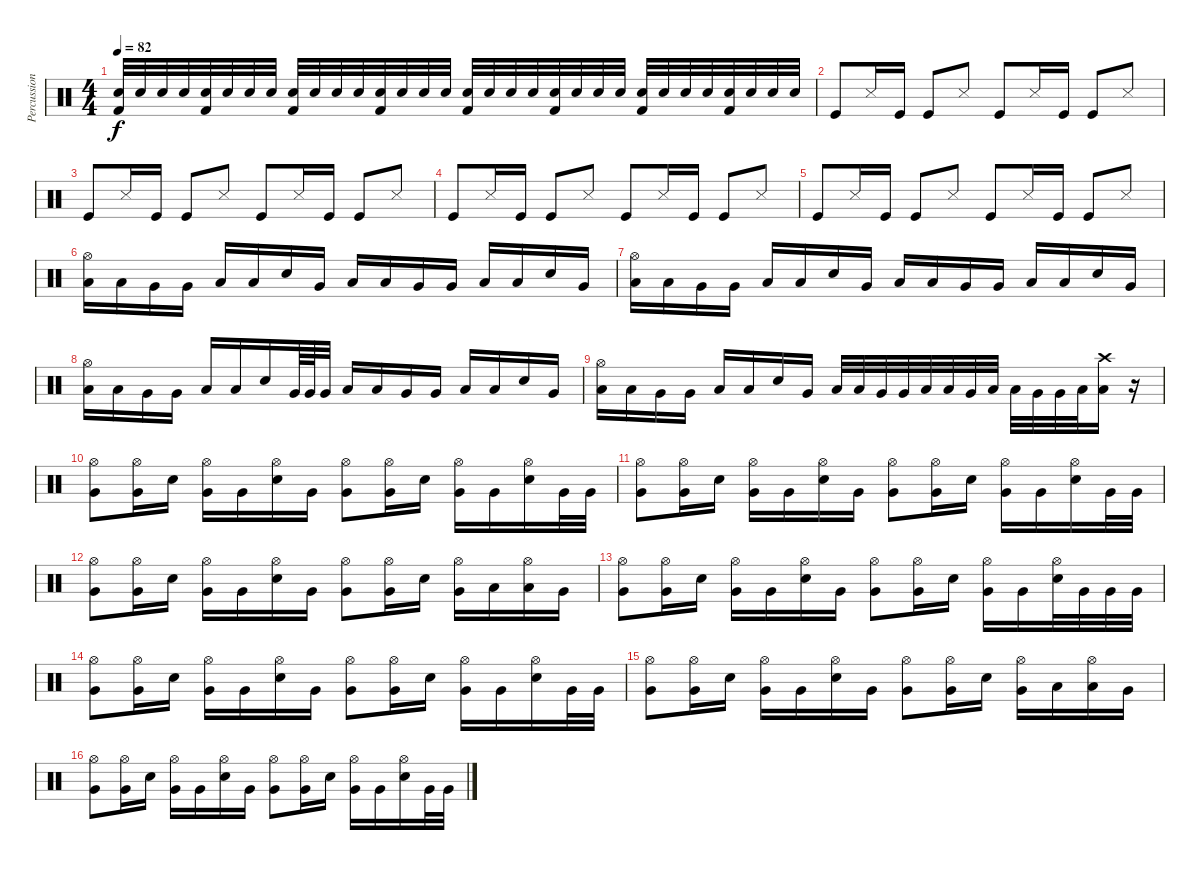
\track ("Percussion" "Percussion") {instrument percussion}
\staff {score}
\articulation defaults
\ts (4 4)
\tempo 82
\clef neutral
\ks c
("Kick (hit) 2" "Electric Snare (hit)").32{dy f volume 2} "Electric Snare (hit)".32 "Electric Snare (hit)".32 "Electric Snare (hit)".32 ("Kick (hit) 2" "Electric Snare (hit)").32{volume 4} "Electric Snare (hit)".32 "Electric Snare (hit)".32 "Electric Snare (hit)".32 ("Kick (hit) 2" "Electric Snare (hit)").32{volume 6} "Electric Snare (hit)".32 "Electric Snare (hit)".32 "Electric Snare (hit)".32 ("Kick (hit) 2" "Electric Snare (hit)").32{volume 8} "Electric Snare (hit)".32 "Electric Snare (hit)".32 "Electric Snare (hit)".32 ("Kick (hit) 2" "Electric Snare (hit)").32{volume 10} "Electric Snare (hit)".32 "Electric Snare (hit)".32 "Electric Snare (hit)".32 ("Kick (hit) 2" "Electric Snare (hit)").32{volume 12} "Electric Snare (hit)".32 "Electric Snare (hit)".32 "Electric Snare (hit)".32 ("Kick (hit) 2" "Electric Snare (hit)").32{volume 14} "Electric Snare (hit)".32 "Electric Snare (hit)".32 "Electric Snare (hit)".32 ("Kick (hit) 2" "Electric Snare (hit)").32{volume 16} "Electric Snare (hit)".32 "Electric Snare (hit)".32 "Electric Snare (hit)".32 |
"Kick (hit)".8{volume 6} "Snare (side stick) 3".16 "Kick (hit)".16 "Kick (hit)".8 "Snare (side stick) 3".8 "Kick (hit)".8 "Snare (side stick) 3".16 "Kick (hit)".16 "Kick (hit)".8 "Snare (side stick) 3".8 |
"Kick (hit)".8 "Snare (side stick) 3".16 "Kick (hit)".16 "Kick (hit)".8 "Snare (side stick) 3".8 "Kick (hit)".8 "Snare (side stick) 3".16 "Kick (hit)".16 "Kick (hit)".8 "Snare (side stick) 3".8 |
"Kick (hit)".8 "Snare (side stick) 3".16 "Kick (hit)".16 "Kick (hit)".8 "Snare (side stick) 3".8 "Kick (hit)".8 "Snare (side stick) 3".16 "Kick (hit)".16 "Kick (hit)".8 "Snare (side stick) 3".8 |
"Kick (hit)".8 "Snare (side stick) 3".16 "Kick (hit)".16 "Kick (hit)".8 "Snare (side stick) 3".8 "Kick (hit)".8 "Snare (side stick) 3".16 "Kick (hit)".16 "Kick (hit)".8 "Snare (side stick) 3".8 |
("Hi-Hat (open)" "Low Tom (hit)").16 "Low Tom (hit)".16 "Very Low Tom (hit)".16 "Very Low Tom (hit)".16 "Low Floor Tom (hit)".16 "Low Floor Tom (hit)".16 "Electric Snare (hit)".16 "Very Low Tom (hit)".16 "Low Tom (hit)".16 "Low Tom (hit)".16 "Very Low Tom (hit)".16 "Very Low Tom (hit)".16 "Low Floor Tom (hit)".16 "Low Floor Tom (hit)".16 "Electric Snare (hit)".16 "Very Low Tom (hit)".16 |
("Hi-Hat (open)" "Low Tom (hit)").16 "Low Tom (hit)".16 "Very Low Tom (hit)".16 "Very Low Tom (hit)".16 "Low Floor Tom (hit)".16 "Low Floor Tom (hit)".16 "Electric Snare (hit)".16 "Very Low Tom (hit)".16 "Low Tom (hit)".16 "Low Tom (hit)".16 "Very Low Tom (hit)".16 "Very Low Tom (hit)".16 "Low Floor Tom (hit)".16 "Low Floor Tom (hit)".16 "Electric Snare (hit)".16 "Very Low Tom (hit)".16 |
("Hi-Hat (open)" "Low Tom (hit)").16 "Low Tom (hit)".16 "Very Low Tom (hit)".16 "Very Low Tom (hit)".16 "Low Floor Tom (hit)".16 "Low Floor Tom (hit)".16 "Electric Snare (hit)".16 "Very Low Tom (hit)".64 "Very Low Tom (hit)".64 "Very Low Tom (hit)".32 "Low Tom (hit)".16 "Low Tom (hit)".16 "Very Low Tom (hit)".16 "Very Low Tom (hit)".16 "Low Floor Tom (hit)".16 "Low Floor Tom (hit)".16 "Electric Snare (hit)".16 "Very Low Tom (hit)".16 |
("Hi-Hat (open)" "Low Tom (hit)").16 "Low Tom (hit)".16 "Very Low Tom (hit)".16 "Very Low Tom (hit)".16 "Low Floor Tom (hit)".16 "Low Floor Tom (hit)".16 "Electric Snare (hit)".16 "Very Low Tom (hit)".16 "Low Tom (hit)".32 "Low Tom (hit)".32 "Very Low Tom (hit)".32 "Very Low Tom (hit)".32 "Low Floor Tom (hit)".32 "Low Floor Tom (hit)".32 "Very Low Tom (hit)".32 "Low Tom (hit)".32 "Low Tom (hit)".32 "Very Low Tom (hit)".32 "Very Low Tom (hit)".32 "Low Floor Tom (hit)".32 ("Crash high (hit)" "Low Floor Tom (hit)").16 r.16 |
("Hi-Hat (open)" "Very Low Tom (hit)").8 ("Hi-Hat (open)" "Very Low Tom (hit)").16 "Snare (hit) 2".16 ("Hi-Hat (open)" "Very Low Tom (hit)").16 "Very Low Tom (hit)".16 ("Hi-Hat (open)" "Snare (hit) 2").16 "Very Low Tom (hit)".16 ("Hi-Hat (open)" "Very Low Tom (hit)").8 ("Hi-Hat (open)" "Very Low Tom (hit)").16 "Snare (hit) 2".16 ("Hi-Hat (open)" "Very Low Tom (hit)").16 "Very Low Tom (hit)".16 ("Hi-Hat (open)" "Snare (hit) 2").16 "Very Low Tom (hit)".32 "Very Low Tom (hit)".32 |
("Hi-Hat (open)" "Very Low Tom (hit)").8 ("Hi-Hat (open)" "Very Low Tom (hit)").16 "Snare (hit) 2".16 ("Hi-Hat (open)" "Very Low Tom (hit)").16 "Very Low Tom (hit)".16 ("Hi-Hat (open)" "Snare (hit) 2").16 "Very Low Tom (hit)".16 ("Hi-Hat (open)" "Very Low Tom (hit)").8 ("Hi-Hat (open)" "Very Low Tom (hit)").16 "Snare (hit) 2".16 ("Hi-Hat (open)" "Very Low Tom (hit)").16 "Very Low Tom (hit)".16 ("Hi-Hat (open)" "Snare (hit) 2").16 "Very Low Tom (hit)".32 "Very Low Tom (hit)".32 |
("Hi-Hat (open)" "Very Low Tom (hit)").8 ("Hi-Hat (open)" "Very Low Tom (hit)").16 "Snare (hit) 2".16 ("Hi-Hat (open)" "Very Low Tom (hit)").16 "Very Low Tom (hit)".16 ("Hi-Hat (open)" "Snare (hit) 2").16 "Very Low Tom (hit)".16 ("Hi-Hat (open)" "Very Low Tom (hit)").8 ("Hi-Hat (open)" "Very Low Tom (hit)").16 "Snare (hit) 2".16 ("Hi-Hat (open)" "Very Low Tom (hit)").16 "Low Tom (hit)".16 ("Hi-Hat (open)" "Low Tom (hit)").16 "Very Low Tom (hit)".16 |
("Hi-Hat (open)" "Very Low Tom (hit)").8 ("Hi-Hat (open)" "Very Low Tom (hit)").16 "Snare (hit) 2".16 ("Hi-Hat (open)" "Very Low Tom (hit)").16 "Very Low Tom (hit)".16 ("Hi-Hat (open)" "Snare (hit) 2").16 "Very Low Tom (hit)".16 ("Hi-Hat (open)" "Very Low Tom (hit)").8 ("Hi-Hat (open)" "Very Low Tom (hit)").16 "Snare (hit) 2".16 ("Hi-Hat (open)" "Very Low Tom (hit)").16 "Very Low Tom (hit)".16 ("Hi-Hat (open)" "Snare (hit) 2").32 "Very Low Tom (hit)".32 "Very Low Tom (hit)".32 "Very Low Tom (hit)".32 |
("Hi-Hat (open)" "Very Low Tom (hit)").8 ("Hi-Hat (open)" "Very Low Tom (hit)").16 "Snare (hit) 2".16 ("Hi-Hat (open)" "Very Low Tom (hit)").16 "Very Low Tom (hit)".16 ("Hi-Hat (open)" "Snare (hit) 2").16 "Very Low Tom (hit)".16 ("Hi-Hat (open)" "Very Low Tom (hit)").8 ("Hi-Hat (open)" "Very Low Tom (hit)").16 "Snare (hit) 2".16 ("Hi-Hat (open)" "Very Low Tom (hit)").16 "Very Low Tom (hit)".16 ("Hi-Hat (open)" "Snare (hit) 2").16 "Very Low Tom (hit)".32 "Very Low Tom (hit)".32 |
("Hi-Hat (open)" "Very Low Tom (hit)").8 ("Hi-Hat (open)" "Very Low Tom (hit)").16 "Snare (hit) 2".16 ("Hi-Hat (open)" "Very Low Tom (hit)").16 "Very Low Tom (hit)".16 ("Hi-Hat (open)" "Snare (hit) 2").16 "Very Low Tom (hit)".16 ("Hi-Hat (open)" "Very Low Tom (hit)").8 ("Hi-Hat (open)" "Very Low Tom (hit)").16 "Snare (hit) 2".16 ("Hi-Hat (open)" "Very Low Tom (hit)").16 "Low Tom (hit)".16 ("Hi-Hat (open)" "Low Tom (hit)").16 "Very Low Tom (hit)".16 |
("Hi-Hat (open)" "Very Low Tom (hit)").8 ("Hi-Hat (open)" "Very Low Tom (hit)").16 "Snare (hit) 2".16 ("Hi-Hat (open)" "Very Low Tom (hit)").16 "Very Low Tom (hit)".16 ("Hi-Hat (open)" "Snare (hit) 2").16 "Very Low Tom (hit)".16 ("Hi-Hat (open)" "Very Low Tom (hit)").8 ("Hi-Hat (open)" "Very Low Tom (hit)").16 "Snare (hit) 2".16 ("Hi-Hat (open)" "Very Low Tom (hit)").16 "Very Low Tom (hit)".16 ("Hi-Hat (open)" "Snare (hit) 2").16 "Very Low Tom (hit)".32 "Very Low Tom (hit)".32
